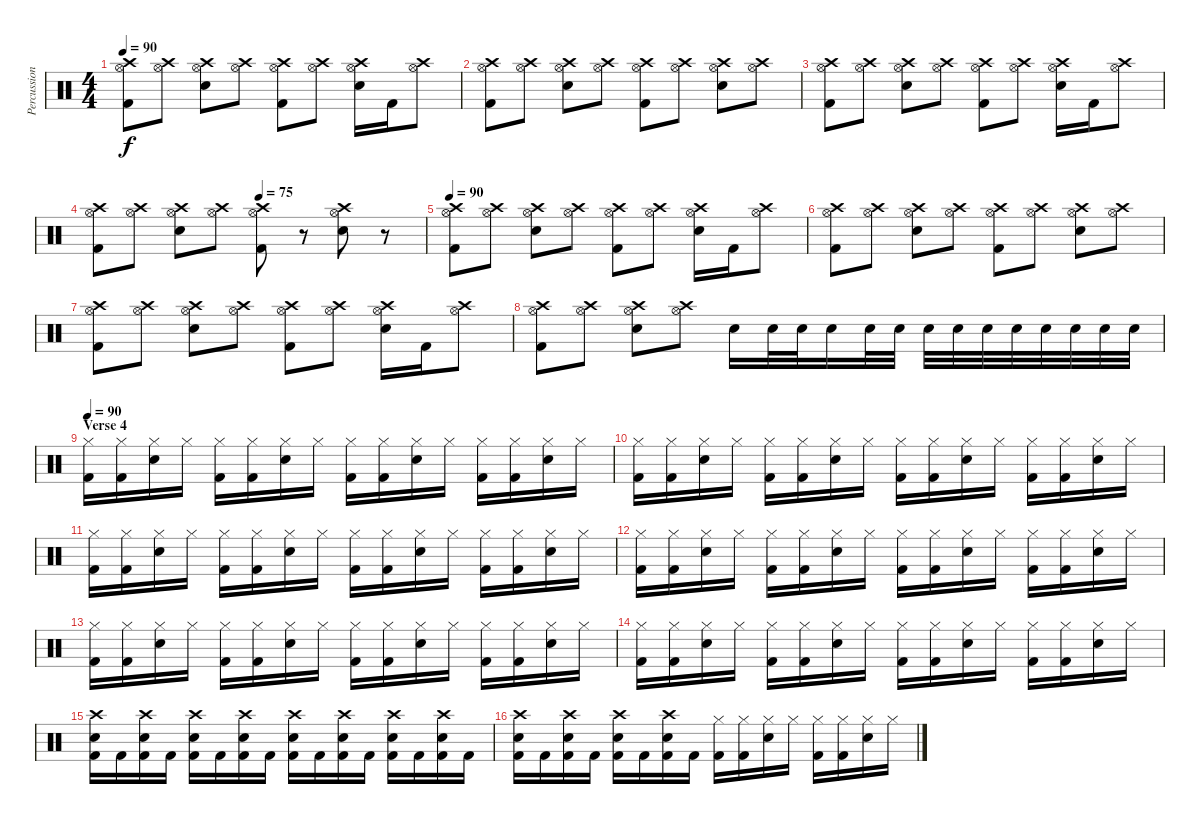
\track ("Percussion" "Percussion") {instrument percussion}
\staff {score}
\articulation defaults
\ts (4 4)
\tempo 90
\clef neutral
\ks c
("Hi-Hat (open)" "Crash high (hit)" "Kick (hit) 2").8{dy f} ("Hi-Hat (open)" "Crash high (hit)").8 ("Hi-Hat (open)" "Crash high (hit)" "Snare (hit) 2").8 ("Hi-Hat (open)" "Crash high (hit)").8 ("Hi-Hat (open)" "Crash high (hit)" "Kick (hit) 2").8 ("Hi-Hat (open)" "Crash high (hit)").8 ("Hi-Hat (open)" "Crash high (hit)" "Snare (hit) 2").16 "Kick (hit) 2".16 ("Hi-Hat (open)" "Crash high (hit)").8 |
("Hi-Hat (open)" "Crash high (hit)" "Kick (hit) 2").8 ("Hi-Hat (open)" "Crash high (hit)").8 ("Hi-Hat (open)" "Crash high (hit)" "Snare (hit) 2").8 ("Hi-Hat (open)" "Crash high (hit)").8 ("Hi-Hat (open)" "Crash high (hit)" "Kick (hit) 2").8 ("Hi-Hat (open)" "Crash high (hit)").8 ("Hi-Hat (open)" "Crash high (hit)" "Snare (hit) 2").8 ("Hi-Hat (open)" "Crash high (hit)").8 |
("Hi-Hat (open)" "Crash high (hit)" "Kick (hit) 2").8 ("Hi-Hat (open)" "Crash high (hit)").8 ("Hi-Hat (open)" "Crash high (hit)" "Snare (hit) 2").8 ("Hi-Hat (open)" "Crash high (hit)").8 ("Hi-Hat (open)" "Crash high (hit)" "Kick (hit) 2").8 ("Hi-Hat (open)" "Crash high (hit)").8 ("Hi-Hat (open)" "Crash high (hit)" "Snare (hit) 2").16 "Kick (hit) 2".16 ("Hi-Hat (open)" "Crash high (hit)").8 |
\tempo (75 0.5)
("Hi-Hat (open)" "Crash high (hit)" "Kick (hit) 2").8 ("Hi-Hat (open)" "Crash high (hit)").8 ("Hi-Hat (open)" "Crash high (hit)" "Snare (hit) 2").8 ("Hi-Hat (open)" "Crash high (hit)").8 ("Hi-Hat (open)" "Crash high (hit)" "Kick (hit) 2").8 r.8 ("Hi-Hat (open)" "Crash high (hit)" "Snare (hit) 2").8 r.8 |
\tempo 90
("Hi-Hat (open)" "Crash high (hit)" "Kick (hit) 2").8 ("Hi-Hat (open)" "Crash high (hit)").8 ("Hi-Hat (open)" "Crash high (hit)" "Snare (hit) 2").8 ("Hi-Hat (open)" "Crash high (hit)").8 ("Hi-Hat (open)" "Crash high (hit)" "Kick (hit) 2").8 ("Hi-Hat (open)" "Crash high (hit)").8 ("Hi-Hat (open)" "Crash high (hit)" "Snare (hit) 2").16 "Kick (hit) 2".16 ("Hi-Hat (open)" "Crash high (hit)").8 |
("Hi-Hat (open)" "Crash high (hit)" "Kick (hit) 2").8 ("Hi-Hat (open)" "Crash high (hit)").8 ("Hi-Hat (open)" "Crash high (hit)" "Snare (hit) 2").8 ("Hi-Hat (open)" "Crash high (hit)").8 ("Hi-Hat (open)" "Crash high (hit)" "Kick (hit) 2").8 ("Hi-Hat (open)" "Crash high (hit)").8 ("Hi-Hat (open)" "Crash high (hit)" "Snare (hit) 2").8 ("Hi-Hat (open)" "Crash high (hit)").8 |
("Hi-Hat (open)" "Crash high (hit)" "Kick (hit) 2").8 ("Hi-Hat (open)" "Crash high (hit)").8 ("Hi-Hat (open)" "Crash high (hit)" "Snare (hit) 2").8 ("Hi-Hat (open)" "Crash high (hit)").8 ("Hi-Hat (open)" "Crash high (hit)" "Kick (hit) 2").8 ("Hi-Hat (open)" "Crash high (hit)").8 ("Hi-Hat (open)" "Crash high (hit)" "Snare (hit) 2").16 "Kick (hit) 2".16 ("Hi-Hat (open)" "Crash high (hit)").8 |
("Hi-Hat (open)" "Crash high (hit)" "Kick (hit) 2").8 ("Hi-Hat (open)" "Crash high (hit)").8 ("Hi-Hat (open)" "Crash high (hit)" "Snare (hit) 2").8 ("Hi-Hat (open)" "Crash high (hit)").8 "Snare (hit) 2".16 "Snare (hit) 2".32 "Snare (hit) 2".32 "Snare (hit) 2".16 "Snare (hit) 2".32 "Snare (hit) 2".32 "Snare (hit) 2".32 "Snare (hit) 2".32 "Snare (hit) 2".32 "Snare (hit) 2".32 "Snare (hit) 2".32 "Snare (hit) 2".32 "Snare (hit) 2".32 "Snare (hit) 2".32 |
\section ("" "Verse 4")
\tempo 90
("Hi-Hat (closed)" "Kick (hit) 2").16 ("Hi-Hat (closed)" "Kick (hit) 2").16 ("Hi-Hat (closed)" "Snare (hit) 2").16 "Hi-Hat (closed)".16 ("Hi-Hat (closed)" "Kick (hit) 2").16 ("Hi-Hat (closed)" "Kick (hit) 2").16 ("Hi-Hat (closed)" "Snare (hit) 2").16 "Hi-Hat (closed)".16 ("Hi-Hat (closed)" "Kick (hit) 2").16 ("Hi-Hat (closed)" "Kick (hit) 2").16 ("Hi-Hat (closed)" "Snare (hit) 2").16 "Hi-Hat (closed)".16 ("Hi-Hat (closed)" "Kick (hit) 2").16 ("Hi-Hat (closed)" "Kick (hit) 2").16 ("Hi-Hat (closed)" "Snare (hit) 2").16 "Hi-Hat (closed)".16 |
("Hi-Hat (closed)" "Kick (hit) 2").16 ("Hi-Hat (closed)" "Kick (hit) 2").16 ("Hi-Hat (closed)" "Snare (hit) 2").16 "Hi-Hat (closed)".16 ("Hi-Hat (closed)" "Kick (hit) 2").16 ("Hi-Hat (closed)" "Kick (hit) 2").16 ("Hi-Hat (closed)" "Snare (hit) 2").16 "Hi-Hat (closed)".16 ("Hi-Hat (closed)" "Kick (hit) 2").16 ("Hi-Hat (closed)" "Kick (hit) 2").16 ("Hi-Hat (closed)" "Snare (hit) 2").16 "Hi-Hat (closed)".16 ("Hi-Hat (closed)" "Kick (hit) 2").16 ("Hi-Hat (closed)" "Kick (hit) 2").16 ("Hi-Hat (closed)" "Snare (hit) 2").16 "Hi-Hat (closed)".16 |
("Hi-Hat (closed)" "Kick (hit) 2").16 ("Hi-Hat (closed)" "Kick (hit) 2").16 ("Hi-Hat (closed)" "Snare (hit) 2").16 "Hi-Hat (closed)".16 ("Hi-Hat (closed)" "Kick (hit) 2").16 ("Hi-Hat (closed)" "Kick (hit) 2").16 ("Hi-Hat (closed)" "Snare (hit) 2").16 "Hi-Hat (closed)".16 ("Hi-Hat (closed)" "Kick (hit) 2").16 ("Hi-Hat (closed)" "Kick (hit) 2").16 ("Hi-Hat (closed)" "Snare (hit) 2").16 "Hi-Hat (closed)".16 ("Hi-Hat (closed)" "Kick (hit) 2").16 ("Hi-Hat (closed)" "Kick (hit) 2").16 ("Hi-Hat (closed)" "Snare (hit) 2").16 "Hi-Hat (closed)".16 |
("Hi-Hat (closed)" "Kick (hit) 2").16 ("Hi-Hat (closed)" "Kick (hit) 2").16 ("Hi-Hat (closed)" "Snare (hit) 2").16 "Hi-Hat (closed)".16 ("Hi-Hat (closed)" "Kick (hit) 2").16 ("Hi-Hat (closed)" "Kick (hit) 2").16 ("Hi-Hat (closed)" "Snare (hit) 2").16 "Hi-Hat (closed)".16 ("Hi-Hat (closed)" "Kick (hit) 2").16 ("Hi-Hat (closed)" "Kick (hit) 2").16 ("Hi-Hat (closed)" "Snare (hit) 2").16 "Hi-Hat (closed)".16 ("Hi-Hat (closed)" "Kick (hit) 2").16 ("Hi-Hat (closed)" "Kick (hit) 2").16 ("Hi-Hat (closed)" "Snare (hit) 2").16 "Hi-Hat (closed)".16 |
("Hi-Hat (closed)" "Kick (hit) 2").16 ("Hi-Hat (closed)" "Kick (hit) 2").16 ("Hi-Hat (closed)" "Snare (hit) 2").16 "Hi-Hat (closed)".16 ("Hi-Hat (closed)" "Kick (hit) 2").16 ("Hi-Hat (closed)" "Kick (hit) 2").16 ("Hi-Hat (closed)" "Snare (hit) 2").16 "Hi-Hat (closed)".16 ("Hi-Hat (closed)" "Kick (hit) 2").16 ("Hi-Hat (closed)" "Kick (hit) 2").16 ("Hi-Hat (closed)" "Snare (hit) 2").16 "Hi-Hat (closed)".16 ("Hi-Hat (closed)" "Kick (hit) 2").16 ("Hi-Hat (closed)" "Kick (hit) 2").16 ("Hi-Hat (closed)" "Snare (hit) 2").16 "Hi-Hat (closed)".16 |
("Hi-Hat (closed)" "Kick (hit) 2").16 ("Hi-Hat (closed)" "Kick (hit) 2").16 ("Hi-Hat (closed)" "Snare (hit) 2").16 "Hi-Hat (closed)".16 ("Hi-Hat (closed)" "Kick (hit) 2").16 ("Hi-Hat (closed)" "Kick (hit) 2").16 ("Hi-Hat (closed)" "Snare (hit) 2").16 "Hi-Hat (closed)".16 ("Hi-Hat (closed)" "Kick (hit) 2").16 ("Hi-Hat (closed)" "Kick (hit) 2").16 ("Hi-Hat (closed)" "Snare (hit) 2").16 "Hi-Hat (closed)".16 ("Hi-Hat (closed)" "Kick (hit) 2").16 ("Hi-Hat (closed)" "Kick (hit) 2").16 ("Hi-Hat (closed)" "Snare (hit) 2").16 "Hi-Hat (closed)".16 |
("Crash high (hit)" "Snare (hit) 2" "Kick (hit) 2").16 "Kick (hit) 2".16 ("Crash high (hit)" "Snare (hit) 2" "Kick (hit) 2").16 "Kick (hit) 2".16 ("Crash high (hit)" "Snare (hit) 2" "Kick (hit) 2").16 "Kick (hit) 2".16 ("Crash high (hit)" "Snare (hit) 2" "Kick (hit) 2").16 "Kick (hit) 2".16 ("Crash high (hit)" "Snare (hit) 2" "Kick (hit) 2").16 "Kick (hit) 2".16 ("Crash high (hit)" "Snare (hit) 2" "Kick (hit) 2").16 "Kick (hit) 2".16 ("Crash high (hit)" "Snare (hit) 2" "Kick (hit) 2").16 "Kick (hit) 2".16 ("Crash high (hit)" "Snare (hit) 2" "Kick (hit) 2").16 "Kick (hit) 2".16 |
("Crash high (hit)" "Snare (hit) 2" "Kick (hit) 2").16 "Kick (hit) 2".16 ("Crash high (hit)" "Snare (hit) 2" "Kick (hit) 2").16 "Kick (hit) 2".16 ("Crash high (hit)" "Snare (hit) 2" "Kick (hit) 2").16 "Kick (hit) 2".16 ("Crash high (hit)" "Snare (hit) 2" "Kick (hit) 2").16 "Kick (hit) 2".16 ("Hi-Hat (closed)" "Kick (hit) 2").16 ("Hi-Hat (closed)" "Kick (hit) 2").16 ("Hi-Hat (closed)" "Snare (hit) 2").16 "Hi-Hat (closed)".16 ("Hi-Hat (closed)" "Kick (hit) 2").16 ("Hi-Hat (closed)" "Kick (hit) 2").16 ("Hi-Hat (closed)" "Snare (hit) 2").16 "Hi-Hat (closed)".16
